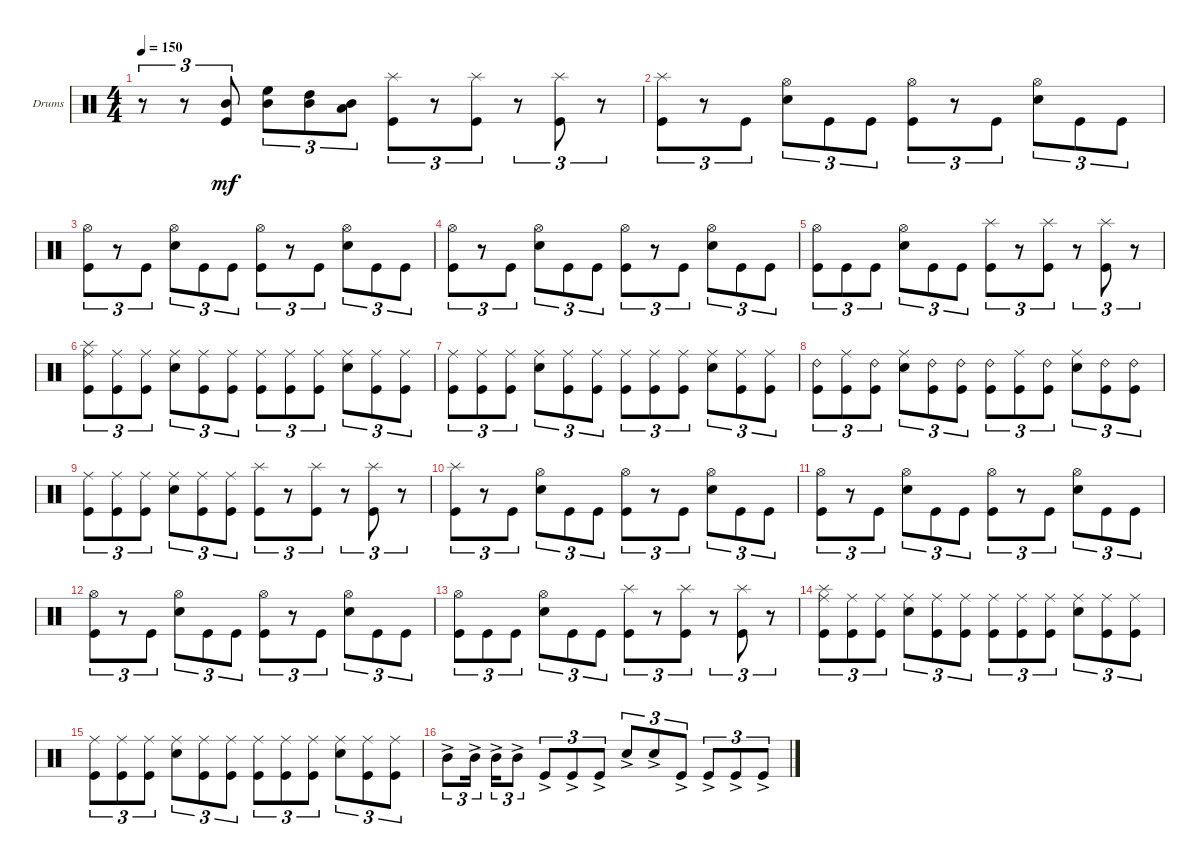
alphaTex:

\bracketExtendMode groupsimilarinstruments
\firstSystemTrackNameOrientation horizontal
\otherSystemsTrackNameOrientation horizontal
\track ("Drumkit" "Drums") {instrument percussion}
\staff {score}
\articulation defaults
\ts (4 4)
\tempo 150
\clef neutral
\ks c
r.8{tu (3 2) dy mf} r.8{tu (3 2)} ("Mid Tom (hit)" "Kick (hit)").8{tu (3 2)} ("Mid Tom (hit)" "High Floor Tom (hit)").8{tu (3 2)} ("Mid Tom (hit)" "High Tom (hit)").8{tu (3 2)} ("Mid Tom (hit)" "Low Tom (hit)").8{tu (3 2)} ("Kick (hit)" "Splash (hit)").8{tu (3 2)} r.8{tu (3 2)} ("Kick (hit)" "Splash (hit)").8{tu (3 2)} r.8{tu (3 2)} ("Kick (hit)" "Splash (hit)").8{tu (3 2)} r.8{tu (3 2)} |
("Kick (hit)" "Splash (hit)").8{tu (3 2)} r.8{tu (3 2)} "Kick (hit)".8{tu (3 2)} ("Snare (hit) 2" "Hi-Hat (open)").8{tu (3 2)} "Kick (hit)".8{tu (3 2)} "Kick (hit)".8{tu (3 2)} ("Kick (hit)" "Hi-Hat (open)").8{tu (3 2)} r.8{tu (3 2)} "Kick (hit)".8{tu (3 2)} ("Snare (hit) 2" "Hi-Hat (open)").8{tu (3 2)} "Kick (hit)".8{tu (3 2)} "Kick (hit)".8{tu (3 2)} |
("Kick (hit)" "Hi-Hat (open)").8{tu (3 2)} r.8{tu (3 2)} "Kick (hit)".8{tu (3 2)} ("Snare (hit) 2" "Hi-Hat (open)").8{tu (3 2)} "Kick (hit)".8{tu (3 2)} "Kick (hit)".8{tu (3 2)} ("Kick (hit)" "Hi-Hat (open)").8{tu (3 2)} r.8{tu (3 2)} "Kick (hit)".8{tu (3 2)} ("Snare (hit) 2" "Hi-Hat (open)").8{tu (3 2)} "Kick (hit)".8{tu (3 2)} "Kick (hit)".8{tu (3 2)} |
("Kick (hit)" "Hi-Hat (open)").8{tu (3 2)} r.8{tu (3 2)} "Kick (hit)".8{tu (3 2)} ("Snare (hit) 2" "Hi-Hat (open)").8{tu (3 2)} "Kick (hit)".8{tu (3 2)} "Kick (hit)".8{tu (3 2)} ("Kick (hit)" "Hi-Hat (open)").8{tu (3 2)} r.8{tu (3 2)} "Kick (hit)".8{tu (3 2)} ("Snare (hit) 2" "Hi-Hat (open)").8{tu (3 2)} "Kick (hit)".8{tu (3 2)} "Kick (hit)".8{tu (3 2)} |
("Kick (hit)" "Hi-Hat (open)").8{tu (3 2)} "Kick (hit)".8{tu (3 2)} "Kick (hit)".8{tu (3 2)} ("Snare (hit) 2" "Hi-Hat (open)").8{tu (3 2)} "Kick (hit)".8{tu (3 2)} "Kick (hit)".8{tu (3 2)} ("Kick (hit)" "Splash (hit)").8{tu (3 2)} r.8{tu (3 2)} ("Kick (hit)" "Splash (hit)").8{tu (3 2)} r.8{tu (3 2)} ("Kick (hit)" "Splash (hit)").8{tu (3 2)} r.8{tu (3 2)} |
("Kick (hit)" "Splash (hit)" "Ride (middle)").8{tu (3 2)} ("Kick (hit)" "Ride (middle)").8{tu (3 2)} ("Kick (hit)" "Ride (middle)").8{tu (3 2)} ("Ride (middle)" "Snare (hit) 2").8{tu (3 2)} ("Kick (hit)" "Ride (middle)").8{tu (3 2)} ("Kick (hit)" "Ride (middle)").8{tu (3 2)} ("Kick (hit)" "Ride (middle)").8{tu (3 2)} ("Kick (hit)" "Ride (middle)").8{tu (3 2)} ("Kick (hit)" "Ride (middle)").8{tu (3 2)} ("Ride (middle)" "Snare (hit) 2").8{tu (3 2)} ("Kick (hit)" "Ride (middle)").8{tu (3 2)} ("Kick (hit)" "Ride (middle)").8{tu (3 2)} |
("Kick (hit)" "Ride (middle)").8{tu (3 2)} ("Kick (hit)" "Ride (middle)").8{tu (3 2)} ("Kick (hit)" "Ride (middle)").8{tu (3 2)} ("Ride (middle)" "Snare (hit) 2").8{tu (3 2)} ("Kick (hit)" "Ride (middle)").8{tu (3 2)} ("Kick (hit)" "Ride (middle)").8{tu (3 2)} ("Kick (hit)" "Ride (middle)").8{tu (3 2)} ("Kick (hit)" "Ride (middle)").8{tu (3 2)} ("Kick (hit)" "Ride (middle)").8{tu (3 2)} ("Ride (middle)" "Snare (hit) 2").8{tu (3 2)} ("Kick (hit)" "Ride (middle)").8{tu (3 2)} ("Kick (hit)" "Ride (middle)").8{tu (3 2)} |
("Kick (hit)" "Ride (bell) 2").8{tu (3 2)} ("Kick (hit)" "Ride (middle)").8{tu (3 2)} ("Kick (hit)" "Ride (bell) 2").8{tu (3 2)} ("Ride (middle)" "Snare (hit) 2").8{tu (3 2)} ("Kick (hit)" "Ride (bell) 2").8{tu (3 2)} ("Kick (hit)" "Ride (bell) 2").8{tu (3 2)} ("Kick (hit)" "Ride (bell) 2").8{tu (3 2)} ("Kick (hit)" "Ride (middle)").8{tu (3 2)} ("Kick (hit)" "Ride (bell) 2").8{tu (3 2)} ("Ride (middle)" "Snare (hit) 2").8{tu (3 2)} ("Kick (hit)" "Ride (bell) 2").8{tu (3 2)} ("Kick (hit)" "Ride (bell) 2").8{tu (3 2)} |
("Kick (hit)" "Ride (middle)").8{tu (3 2)} ("Kick (hit)" "Ride (middle)").8{tu (3 2)} ("Kick (hit)" "Ride (middle)").8{tu (3 2)} ("Snare (hit) 2" "Ride (middle)").8{tu (3 2)} ("Kick (hit)" "Ride (middle)").8{tu (3 2)} ("Kick (hit)" "Ride (middle)").8{tu (3 2)} ("Kick (hit)" "Splash (hit)").8{tu (3 2)} r.8{tu (3 2)} ("Kick (hit)" "Splash (hit)").8{tu (3 2)} r.8{tu (3 2)} ("Kick (hit)" "Splash (hit)").8{tu (3 2)} r.8{tu (3 2)} |
("Kick (hit)" "Splash (hit)").8{tu (3 2)} r.8{tu (3 2)} "Kick (hit)".8{tu (3 2)} ("Snare (hit) 2" "Hi-Hat (open)").8{tu (3 2)} "Kick (hit)".8{tu (3 2)} "Kick (hit)".8{tu (3 2)} ("Kick (hit)" "Hi-Hat (open)").8{tu (3 2)} r.8{tu (3 2)} "Kick (hit)".8{tu (3 2)} ("Snare (hit) 2" "Hi-Hat (open)").8{tu (3 2)} "Kick (hit)".8{tu (3 2)} "Kick (hit)".8{tu (3 2)} |
("Kick (hit)" "Hi-Hat (open)").8{tu (3 2)} r.8{tu (3 2)} "Kick (hit)".8{tu (3 2)} ("Snare (hit) 2" "Hi-Hat (open)").8{tu (3 2)} "Kick (hit)".8{tu (3 2)} "Kick (hit)".8{tu (3 2)} ("Kick (hit)" "Hi-Hat (open)").8{tu (3 2)} r.8{tu (3 2)} "Kick (hit)".8{tu (3 2)} ("Snare (hit) 2" "Hi-Hat (open)").8{tu (3 2)} "Kick (hit)".8{tu (3 2)} "Kick (hit)".8{tu (3 2)} |
("Kick (hit)" "Hi-Hat (open)").8{tu (3 2)} r.8{tu (3 2)} "Kick (hit)".8{tu (3 2)} ("Snare (hit) 2" "Hi-Hat (open)").8{tu (3 2)} "Kick (hit)".8{tu (3 2)} "Kick (hit)".8{tu (3 2)} ("Kick (hit)" "Hi-Hat (open)").8{tu (3 2)} r.8{tu (3 2)} "Kick (hit)".8{tu (3 2)} ("Snare (hit) 2" "Hi-Hat (open)").8{tu (3 2)} "Kick (hit)".8{tu (3 2)} "Kick (hit)".8{tu (3 2)} |
("Kick (hit)" "Hi-Hat (open)").8{tu (3 2)} "Kick (hit)".8{tu (3 2)} "Kick (hit)".8{tu (3 2)} ("Snare (hit) 2" "Hi-Hat (open)").8{tu (3 2)} "Kick (hit)".8{tu (3 2)} "Kick (hit)".8{tu (3 2)} ("Kick (hit)" "Splash (hit)").8{tu (3 2)} r.8{tu (3 2)} ("Kick (hit)" "Splash (hit)").8{tu (3 2)} r.8{tu (3 2)} ("Kick (hit)" "Splash (hit)").8{tu (3 2)} r.8{tu (3 2)} |
("Kick (hit)" "Splash (hit)" "Ride (middle)").8{tu (3 2)} ("Kick (hit)" "Ride (middle)").8{tu (3 2)} ("Kick (hit)" "Ride (middle)").8{tu (3 2)} ("Ride (middle)" "Snare (hit) 2").8{tu (3 2)} ("Kick (hit)" "Ride (middle)").8{tu (3 2)} ("Kick (hit)" "Ride (middle)").8{tu (3 2)} ("Kick (hit)" "Ride (middle)").8{tu (3 2)} ("Kick (hit)" "Ride (middle)").8{tu (3 2)} ("Kick (hit)" "Ride (middle)").8{tu (3 2)} ("Ride (middle)" "Snare (hit) 2").8{tu (3 2)} ("Kick (hit)" "Ride (middle)").8{tu (3 2)} ("Kick (hit)" "Ride (middle)").8{tu (3 2)} |
("Kick (hit)" "Ride (middle)").8{tu (3 2)} ("Kick (hit)" "Ride (middle)").8{tu (3 2)} ("Kick (hit)" "Ride (middle)").8{tu (3 2)} ("Ride (middle)" "Snare (hit) 2").8{tu (3 2)} ("Kick (hit)" "Ride (middle)").8{tu (3 2)} ("Kick (hit)" "Ride (middle)").8{tu (3 2)} ("Kick (hit)" "Ride (middle)").8{tu (3 2)} ("Kick (hit)" "Ride (middle)").8{tu (3 2)} ("Kick (hit)" "Ride (middle)").8{tu (3 2)} ("Ride (middle)" "Snare (hit) 2").8{tu (3 2)} ("Kick (hit)" "Ride (middle)").8{tu (3 2)} ("Kick (hit)" "Ride (middle)").8{tu (3 2)} |
"Mid Tom (hit)"{ac}.8{tu (3 2)} "Mid Tom (hit)"{ac}.16{tu (3 2)} "Mid Tom (hit)"{ac}.16{tu (3 2)} "Mid Tom (hit)"{ac}.8{tu (3 2)} "Kick (hit)"{ac}.8{tu (3 2)} "Kick (hit)"{ac}.8{tu (3 2)} "Kick (hit)"{ac}.8{tu (3 2)} "Snare (hit) 2"{ac}.8{tu (3 2)} "Snare (hit) 2"{ac}.8{tu (3 2)} "Kick (hit)"{ac}.8{tu (3 2)} "Kick (hit)"{ac}.8{tu (3 2)} "Kick (hit)"{ac}.8{tu (3 2)} "Kick (hit)"{ac}.8{tu (3 2)}
